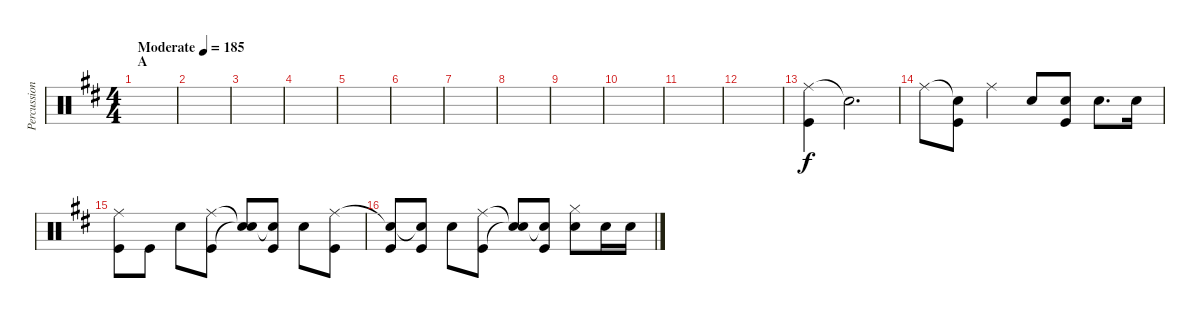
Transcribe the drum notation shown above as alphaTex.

\track ("Percussion" "Percussion") {instrument percussion}
\staff {score}
\articulation defaults
\ts (4 4)
\section ("" "A")
\tempo (185 "Moderate")
\clef neutral
\ks d
|
|
|
|
|
|
|
|
|
|
|
|
("Ride (middle)" "Kick (hit)").4 "Snare (hit)"{t}.2{d} |
"Ride (middle)".8 ("Snare (hit)"{t} "Kick (hit)").8 "Ride (middle)".4 "Snare (hit) 2".8 ("Snare (hit) 2" "Kick (hit)").8 "Snare (hit) 2".8{d} "Snare (hit) 2".16 |
("Ride (middle)" "Kick (hit)").8 "Kick (hit)".8 "Snare (hit) 2".8 ("Ride (middle)" "Kick (hit)").8 ("Snare (hit)"{t} "Snare (hit)"{t}).8 ("Snare (hit)"{t} "Kick (hit)").8 "Snare (hit) 2".8 ("Ride (middle)" "Kick (hit)").8 |
("Snare (hit)"{t} "Kick (hit)").8 ("Snare (hit)"{t} "Kick (hit)").8 "Snare (hit) 2".8 ("Ride (middle)" "Kick (hit)").8 ("Snare (hit)"{t} "Snare (hit)"{t}).8 ("Snare (hit)"{t} "Kick (hit)").8 ("Hi-Hat (closed)" "Snare (hit) 2").8 "Snare (hit) 2".16 "Snare (hit) 2".16
